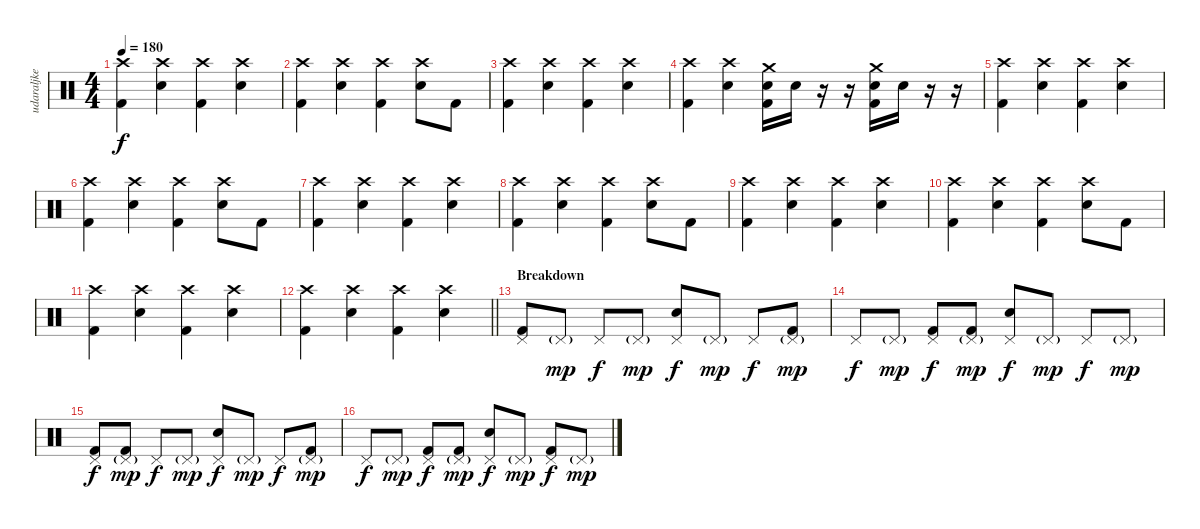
\track ("udaraljke" "udaraljke") {instrument percussion}
\staff {score}
\articulation defaults
\ts (4 4)
\tempo 180
\clef neutral
\ks c
("Crash high (hit)" "Kick (hit) 2").4{dy f} ("Crash high (hit)" "Snare (hit) 2").4 ("Crash high (hit)" "Kick (hit) 2").4 ("Crash high (hit)" "Snare (hit) 2").4 |
("Crash high (hit)" "Kick (hit) 2").4 ("Crash high (hit)" "Snare (hit) 2").4 ("Crash high (hit)" "Kick (hit) 2").4 ("Crash high (hit)" "Snare (hit) 2").8 "Kick (hit) 2".8 |
("Crash high (hit)" "Kick (hit) 2").4 ("Crash high (hit)" "Snare (hit) 2").4 ("Crash high (hit)" "Kick (hit) 2").4 ("Crash high (hit)" "Snare (hit) 2").4 |
("Crash high (hit)" "Kick (hit) 2").4 ("Crash high (hit)" "Snare (hit) 2").4 ("Crash medium (hit)" "Snare (hit) 2" "Kick (hit) 2").16 "Snare (hit) 2".16 r.16 r.16 ("Crash medium (hit)" "Snare (hit) 2" "Kick (hit) 2").16 "Snare (hit) 2".16 r.16 r.16 |
("Crash high (hit)" "Kick (hit) 2").4 ("Crash high (hit)" "Snare (hit) 2").4 ("Crash high (hit)" "Kick (hit) 2").4 ("Crash high (hit)" "Snare (hit) 2").4 |
("Crash high (hit)" "Kick (hit) 2").4 ("Crash high (hit)" "Snare (hit) 2").4 ("Crash high (hit)" "Kick (hit) 2").4 ("Crash high (hit)" "Snare (hit) 2").8 "Kick (hit) 2".8 |
("Crash high (hit)" "Kick (hit) 2").4 ("Crash high (hit)" "Snare (hit) 2").4 ("Crash high (hit)" "Kick (hit) 2").4 ("Crash high (hit)" "Snare (hit) 2").4 |
("Crash high (hit)" "Kick (hit) 2").4 ("Crash high (hit)" "Snare (hit) 2").4 ("Crash high (hit)" "Kick (hit) 2").4 ("Crash high (hit)" "Snare (hit) 2").8 "Kick (hit) 2".8 |
("Crash high (hit)" "Kick (hit) 2").4 ("Crash high (hit)" "Snare (hit) 2").4 ("Crash high (hit)" "Kick (hit) 2").4 ("Crash high (hit)" "Snare (hit) 2").4 |
("Crash high (hit)" "Kick (hit) 2").4 ("Crash high (hit)" "Snare (hit) 2").4 ("Crash high (hit)" "Kick (hit) 2").4 ("Crash high (hit)" "Snare (hit) 2").8 "Kick (hit) 2".8 |
("Crash high (hit)" "Kick (hit) 2").4 ("Crash high (hit)" "Snare (hit) 2").4 ("Crash high (hit)" "Kick (hit) 2").4 ("Crash high (hit)" "Snare (hit) 2").4 |
\barLineRight lightlight
("Crash high (hit)" "Kick (hit) 2").4 ("Crash high (hit)" "Snare (hit) 2").4 ("Crash high (hit)" "Kick (hit) 2").4 ("Crash high (hit)" "Snare (hit) 2").4 |
\section ("" "Breakdown")
("Pedal Hi-Hat (hit)" "Kick (hit) 2").8 "Pedal Hi-Hat (hit)"{g}.8{dy mp} "Pedal Hi-Hat (hit)".8{dy f} "Pedal Hi-Hat (hit)"{g}.8{dy mp} ("Pedal Hi-Hat (hit)" "Snare (hit) 2").8{dy f} "Pedal Hi-Hat (hit)"{g}.8{dy mp} "Pedal Hi-Hat (hit)".8{dy f} ("Pedal Hi-Hat (hit)"{g} "Kick (hit) 2").8{dy mp} |
"Pedal Hi-Hat (hit)".8{dy f} "Pedal Hi-Hat (hit)"{g}.8{dy mp} ("Pedal Hi-Hat (hit)" "Kick (hit) 2").8{dy f} ("Pedal Hi-Hat (hit)"{g} "Kick (hit) 2").8{dy mp} ("Pedal Hi-Hat (hit)" "Snare (hit) 2").8{dy f} "Pedal Hi-Hat (hit)"{g}.8{dy mp} "Pedal Hi-Hat (hit)".8{dy f} "Pedal Hi-Hat (hit)"{g}.8{dy mp} |
("Pedal Hi-Hat (hit)" "Kick (hit) 2").8{dy f} ("Pedal Hi-Hat (hit)"{g} "Kick (hit) 2").8{dy mp} "Pedal Hi-Hat (hit)".8{dy f} "Pedal Hi-Hat (hit)"{g}.8{dy mp} ("Pedal Hi-Hat (hit)" "Snare (hit) 2").8{dy f} "Pedal Hi-Hat (hit)"{g}.8{dy mp} "Pedal Hi-Hat (hit)".8{dy f} ("Pedal Hi-Hat (hit)"{g} "Kick (hit) 2").8{dy mp} |
"Pedal Hi-Hat (hit)".8{dy f} "Pedal Hi-Hat (hit)"{g}.8{dy mp} ("Pedal Hi-Hat (hit)" "Kick (hit) 2").8{dy f} ("Pedal Hi-Hat (hit)"{g} "Kick (hit) 2").8{dy mp} ("Pedal Hi-Hat (hit)" "Snare (hit) 2").8{dy f} "Pedal Hi-Hat (hit)"{g}.8{dy mp} ("Pedal Hi-Hat (hit)" "Kick (hit) 2").8{dy f} "Pedal Hi-Hat (hit)"{g}.8{dy mp}
